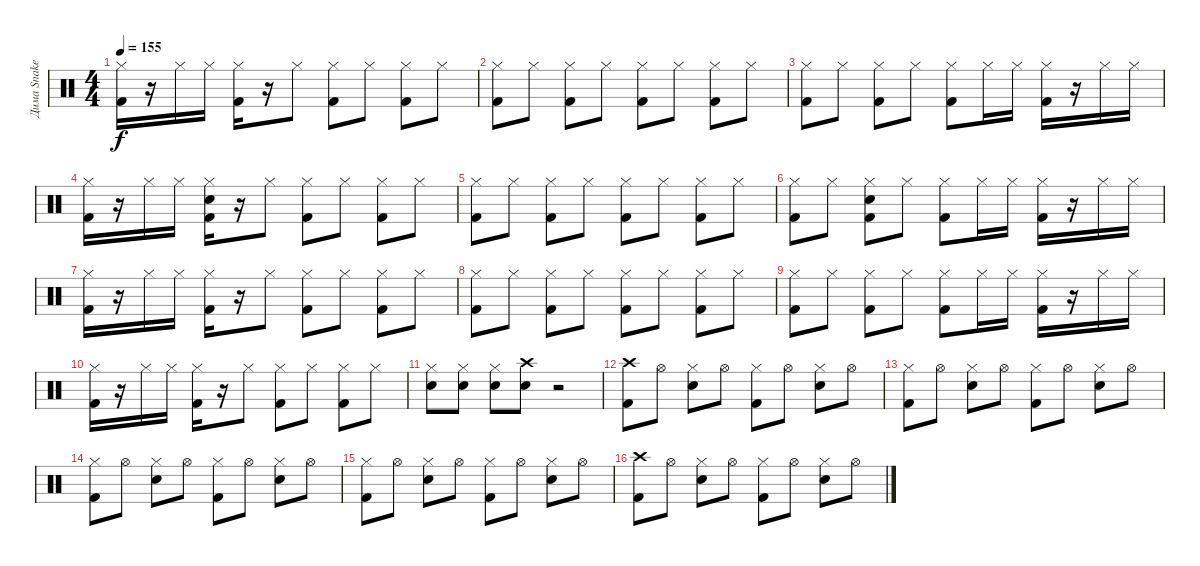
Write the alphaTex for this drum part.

\track ("Дима Snake Хакимов" "Дима Snake") {instrument percussion}
\staff {score}
\articulation defaults
\ts (4 4)
\tempo 155
\clef neutral
\ks c
("Hi-Hat (closed)" "Kick (hit) 2").16{dy f} r.16 "Hi-Hat (closed)".16 "Hi-Hat (closed)".16 ("Hi-Hat (closed)" "Kick (hit) 2").16 r.16 "Hi-Hat (closed)".8 ("Hi-Hat (closed)" "Kick (hit) 2").8 "Hi-Hat (closed)".8 ("Hi-Hat (closed)" "Kick (hit) 2").8 "Hi-Hat (closed)".8 |
("Hi-Hat (closed)" "Kick (hit) 2").8 "Hi-Hat (closed)".8 ("Hi-Hat (closed)" "Kick (hit) 2").8 "Hi-Hat (closed)".8 ("Hi-Hat (closed)" "Kick (hit) 2").8 "Hi-Hat (closed)".8 ("Hi-Hat (closed)" "Kick (hit) 2").8 "Hi-Hat (closed)".8 |
("Hi-Hat (closed)" "Kick (hit) 2").8 "Hi-Hat (closed)".8 ("Hi-Hat (closed)" "Kick (hit) 2").8 "Hi-Hat (closed)".8 ("Hi-Hat (closed)" "Kick (hit) 2").8 "Hi-Hat (closed)".16 "Hi-Hat (closed)".16 ("Hi-Hat (closed)" "Kick (hit) 2").16 r.16 "Hi-Hat (closed)".16 "Hi-Hat (closed)".16 |
("Hi-Hat (closed)" "Kick (hit) 2").16 r.16 "Hi-Hat (closed)".16 "Hi-Hat (closed)".16 ("Hi-Hat (closed)" "Snare (hit) 2" "Kick (hit) 2").16 r.16 "Hi-Hat (closed)".8 ("Hi-Hat (closed)" "Kick (hit) 2").8 "Hi-Hat (closed)".8 ("Hi-Hat (closed)" "Kick (hit) 2").8 "Hi-Hat (closed)".8 |
("Hi-Hat (closed)" "Kick (hit) 2").8 "Hi-Hat (closed)".8 ("Hi-Hat (closed)" "Kick (hit) 2").8 "Hi-Hat (closed)".8 ("Hi-Hat (closed)" "Kick (hit) 2").8 "Hi-Hat (closed)".8 ("Hi-Hat (closed)" "Kick (hit) 2").8 "Hi-Hat (closed)".8 |
("Hi-Hat (closed)" "Kick (hit) 2").8 "Hi-Hat (closed)".8 ("Hi-Hat (closed)" "Snare (hit) 2" "Kick (hit) 2").8 "Hi-Hat (closed)".8 ("Hi-Hat (closed)" "Kick (hit) 2").8 "Hi-Hat (closed)".16 "Hi-Hat (closed)".16 ("Hi-Hat (closed)" "Kick (hit) 2").16 r.16 "Hi-Hat (closed)".16 "Hi-Hat (closed)".16 |
("Hi-Hat (closed)" "Kick (hit) 2").16 r.16 "Hi-Hat (closed)".16 "Hi-Hat (closed)".16 ("Hi-Hat (closed)" "Kick (hit) 2").16 r.16 "Hi-Hat (closed)".8 ("Hi-Hat (closed)" "Kick (hit) 2").8 "Hi-Hat (closed)".8 ("Hi-Hat (closed)" "Kick (hit) 2").8 "Hi-Hat (closed)".8 |
("Hi-Hat (closed)" "Kick (hit) 2").8 "Hi-Hat (closed)".8 ("Hi-Hat (closed)" "Kick (hit) 2").8 "Hi-Hat (closed)".8 ("Hi-Hat (closed)" "Kick (hit) 2").8 "Hi-Hat (closed)".8 ("Hi-Hat (closed)" "Kick (hit) 2").8 "Hi-Hat (closed)".8 |
("Hi-Hat (closed)" "Kick (hit) 2").8 "Hi-Hat (closed)".8 ("Hi-Hat (closed)" "Kick (hit) 2").8 "Hi-Hat (closed)".8 ("Hi-Hat (closed)" "Kick (hit) 2").8 "Hi-Hat (closed)".16 "Hi-Hat (closed)".16 ("Hi-Hat (closed)" "Kick (hit) 2").16 r.16 "Hi-Hat (closed)".16 "Hi-Hat (closed)".16 |
("Hi-Hat (closed)" "Kick (hit) 2").16 r.16 "Hi-Hat (closed)".16 "Hi-Hat (closed)".16 ("Hi-Hat (closed)" "Kick (hit) 2").16 r.16 "Hi-Hat (closed)".8 ("Hi-Hat (closed)" "Kick (hit) 2").8 "Hi-Hat (closed)".8 ("Hi-Hat (closed)" "Kick (hit) 2").8 "Hi-Hat (closed)".8 |
("Hi-Hat (closed)" "Snare (hit) 2").8 ("Hi-Hat (closed)" "Snare (hit) 2").8 ("Hi-Hat (closed)" "Snare (hit) 2").8 ("Crash high (hit)" "Snare (hit) 2").8 r.2 |
("Crash high (hit)" "Kick (hit) 2").8 "Hi-Hat (open)".8 ("Hi-Hat (closed)" "Snare (hit) 2").8 "Hi-Hat (open)".8 ("Hi-Hat (closed)" "Kick (hit) 2").8 "Hi-Hat (open)".8 ("Hi-Hat (closed)" "Snare (hit) 2").8 "Hi-Hat (open)".8 |
("Hi-Hat (closed)" "Kick (hit) 2").8 "Hi-Hat (open)".8 ("Hi-Hat (closed)" "Snare (hit) 2").8 "Hi-Hat (open)".8 ("Hi-Hat (closed)" "Kick (hit) 2").8 "Hi-Hat (open)".8 ("Hi-Hat (closed)" "Snare (hit) 2").8 "Hi-Hat (open)".8 |
("Hi-Hat (closed)" "Kick (hit) 2").8 "Hi-Hat (open)".8 ("Hi-Hat (closed)" "Snare (hit) 2").8 "Hi-Hat (open)".8 ("Hi-Hat (closed)" "Kick (hit) 2").8 "Hi-Hat (open)".8 ("Hi-Hat (closed)" "Snare (hit) 2").8 "Hi-Hat (open)".8 |
("Hi-Hat (closed)" "Kick (hit) 2").8 "Hi-Hat (open)".8 ("Hi-Hat (closed)" "Snare (hit) 2").8 "Hi-Hat (open)".8 ("Hi-Hat (closed)" "Kick (hit) 2").8 "Hi-Hat (open)".8 ("Hi-Hat (closed)" "Snare (hit) 2").8 "Hi-Hat (open)".8 |
("Crash high (hit)" "Kick (hit) 2").8 "Hi-Hat (open)".8 ("Hi-Hat (closed)" "Snare (hit) 2").8 "Hi-Hat (open)".8 ("Hi-Hat (closed)" "Kick (hit) 2").8 "Hi-Hat (open)".8 ("Hi-Hat (closed)" "Snare (hit) 2").8 "Hi-Hat (open)".8
